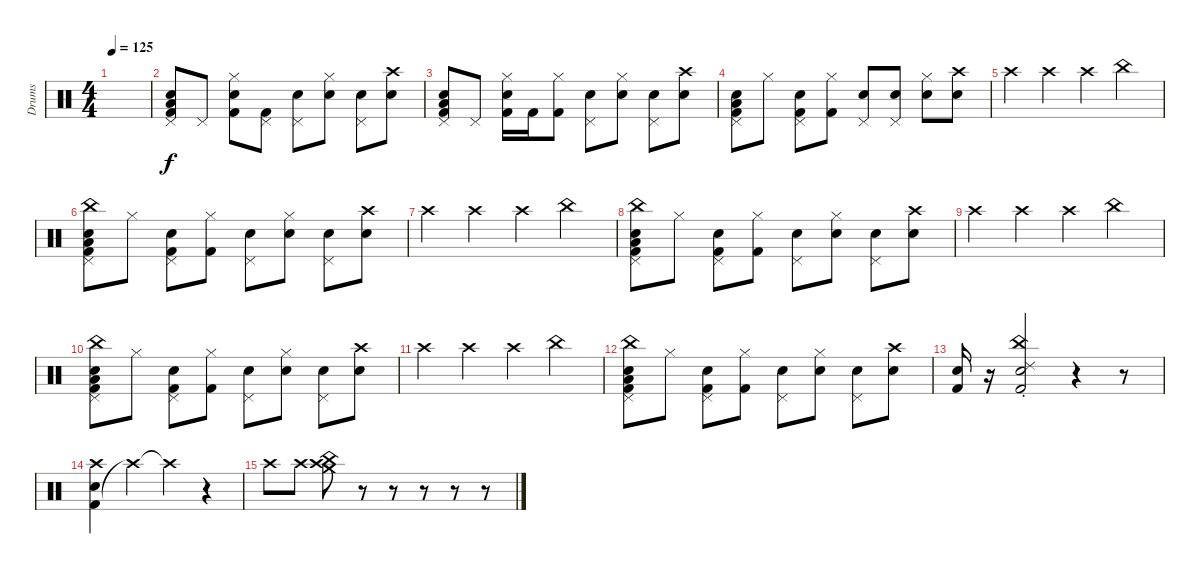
\track ("Drums" "Drums") {instrument percussion}
\staff {score}
\articulation defaults
\ts (4 4)
\tempo 125
\clef neutral
\ks c
|
("Kick (hit) 2" "Snare (hit) 2" "Low Floor Tom (hit)" "Pedal Hi-Hat (hit)").8 "Pedal Hi-Hat (hit)".8 ("Snare (hit) 2" "Kick (hit) 2" "Hi-Hat (closed)").8 ("Kick (hit) 2" "Pedal Hi-Hat (hit)").8 ("Snare (hit) 2" "Pedal Hi-Hat (hit)").8 ("Snare (hit) 2" "Hi-Hat (closed)").8 ("Snare (hit) 2" "Pedal Hi-Hat (hit)").8 ("Snare (hit) 2" "Crash high (hit)").8 |
("Kick (hit) 2" "Snare (hit) 2" "Low Floor Tom (hit)" "Pedal Hi-Hat (hit)").8 "Pedal Hi-Hat (hit)".8 ("Snare (hit) 2" "Kick (hit) 2" "Hi-Hat (closed)").16 "Kick (hit) 2".16 ("Kick (hit) 2" "Hi-Hat (closed)").8 ("Snare (hit) 2" "Pedal Hi-Hat (hit)").8 ("Snare (hit) 2" "Hi-Hat (closed)").8 ("Snare (hit) 2" "Pedal Hi-Hat (hit)").8 ("Snare (hit) 2" "Crash high (hit)").8 |
("Kick (hit) 2" "Snare (hit) 2" "Low Floor Tom (hit)" "Pedal Hi-Hat (hit)").8 "Hi-Hat (closed)".8 ("Snare (hit) 2" "Kick (hit) 2" "Pedal Hi-Hat (hit)").8 ("Kick (hit) 2" "Hi-Hat (closed)").8 ("Snare (hit) 2" "Pedal Hi-Hat (hit)").8 ("Snare (hit) 2" "Pedal Hi-Hat (hit)").8 ("Snare (hit) 2" "Hi-Hat (closed)").8 ("Snare (hit) 2" "Crash high (hit)").8 |
"Crash high (hit)".4 "Crash high (hit)".4 "Crash high (hit)".4 "China (hit)".4 |
("Kick (hit) 2" "Snare (hit) 2" "Low Floor Tom (hit)" "Pedal Hi-Hat (hit)" "China (hit)").8 "Hi-Hat (closed)".8 ("Snare (hit) 2" "Kick (hit) 2" "Pedal Hi-Hat (hit)").8 ("Kick (hit) 2" "Hi-Hat (closed)").8 ("Snare (hit) 2" "Pedal Hi-Hat (hit)").8 ("Snare (hit) 2" "Hi-Hat (closed)").8 ("Snare (hit) 2" "Pedal Hi-Hat (hit)").8 ("Snare (hit) 2" "Crash high (hit)").8 |
"Crash high (hit)".4 "Crash high (hit)".4 "Crash high (hit)".4 "China (hit)".4 |
("Kick (hit) 2" "Snare (hit) 2" "Low Floor Tom (hit)" "Pedal Hi-Hat (hit)" "China (hit)").8 "Hi-Hat (closed)".8 ("Snare (hit) 2" "Kick (hit) 2" "Pedal Hi-Hat (hit)").8 ("Kick (hit) 2" "Hi-Hat (closed)").8 ("Snare (hit) 2" "Pedal Hi-Hat (hit)").8 ("Snare (hit) 2" "Hi-Hat (closed)").8 ("Snare (hit) 2" "Pedal Hi-Hat (hit)").8 ("Snare (hit) 2" "Crash high (hit)").8 |
"Crash high (hit)".4 "Crash high (hit)".4 "Crash high (hit)".4 "China (hit)".4 |
("Kick (hit) 2" "Snare (hit) 2" "Low Floor Tom (hit)" "Pedal Hi-Hat (hit)" "China (hit)").8 "Hi-Hat (closed)".8 ("Snare (hit) 2" "Kick (hit) 2" "Pedal Hi-Hat (hit)").8 ("Kick (hit) 2" "Hi-Hat (closed)").8 ("Snare (hit) 2" "Pedal Hi-Hat (hit)").8 ("Snare (hit) 2" "Hi-Hat (closed)").8 ("Snare (hit) 2" "Pedal Hi-Hat (hit)").8 ("Snare (hit) 2" "Crash high (hit)").8 |
"Crash high (hit)".4 "Crash high (hit)".4 "Crash high (hit)".4 "China (hit)".4 |
("Kick (hit) 2" "Snare (hit) 2" "Low Floor Tom (hit)" "Pedal Hi-Hat (hit)" "China (hit)").8 "Hi-Hat (closed)".8 ("Snare (hit) 2" "Kick (hit) 2" "Pedal Hi-Hat (hit)").8 ("Kick (hit) 2" "Hi-Hat (closed)").8 ("Snare (hit) 2" "Pedal Hi-Hat (hit)").8 ("Snare (hit) 2" "Hi-Hat (closed)").8 ("Snare (hit) 2" "Pedal Hi-Hat (hit)").8 ("Snare (hit) 2" "Crash high (hit)").8 |
("Kick (hit) 2" "Snare (hit) 2").16 r.16 ("Kick (hit) 2" "Snare (hit) 2" "Ride (choke) 2" "China (hit)").2 r.4 r.8 |
("Kick (hit) 2" "Snare (hit) 2" "Crash high (hit)").4 "Crash high (hit)"{t}.4 "Crash high (hit)"{t}.4 r.4 |
"Crash high (hit)".8 "Crash high (hit)".8 ("Crash high (hit)" "Crash medium (hit)" "China (hit)").8 r.8 r.8 r.8 r.8 r.8
